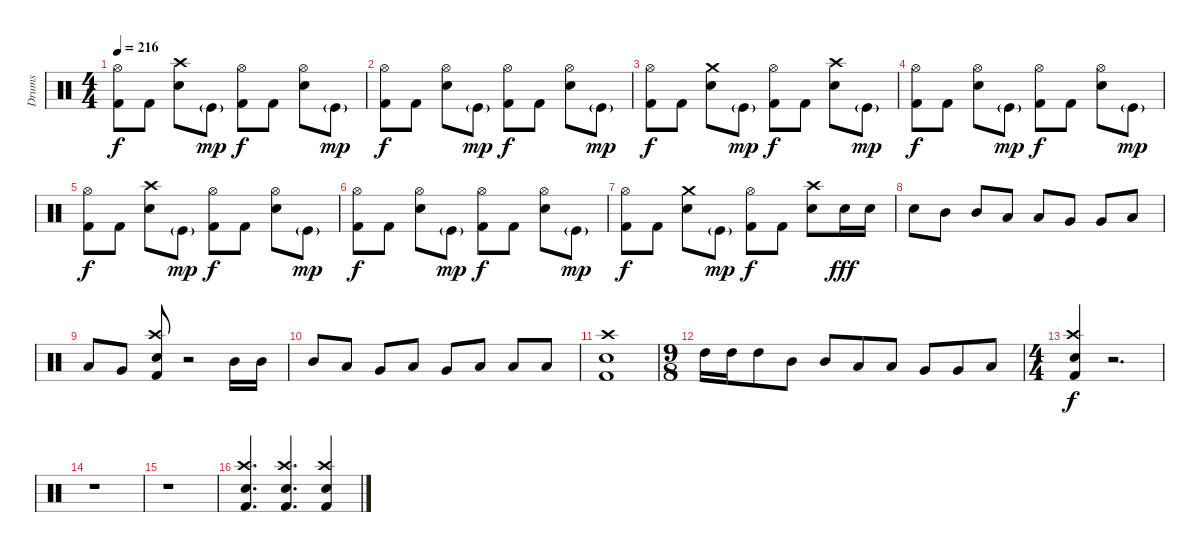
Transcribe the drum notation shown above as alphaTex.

\track ("Drums" "Drums") {instrument percussion}
\staff {score}
\articulation defaults
\ts (4 4)
\tempo 216
\clef neutral
\ks c
("Hi-Hat (open)" "Kick (hit) 2").8{dy f} "Kick (hit) 2".8 ("Crash high (hit)" "Snare (hit) 2").8 "Kick (hit)"{g}.8{dy mp} ("Hi-Hat (open)" "Kick (hit) 2").8{dy f} "Kick (hit) 2".8 ("Hi-Hat (open)" "Snare (hit) 2").8 "Kick (hit)"{g}.8{dy mp} |
("Hi-Hat (open)" "Kick (hit) 2").8{dy f} "Kick (hit) 2".8 ("Hi-Hat (open)" "Snare (hit) 2").8 "Kick (hit)"{g}.8{dy mp} ("Hi-Hat (open)" "Kick (hit) 2").8{dy f} "Kick (hit) 2".8 ("Hi-Hat (open)" "Snare (hit) 2").8 "Kick (hit)"{g}.8{dy mp} |
("Hi-Hat (open)" "Kick (hit) 2").8{dy f} "Kick (hit) 2".8 ("Crash medium (hit)" "Snare (hit) 2").8 "Kick (hit)"{g}.8{dy mp} ("Hi-Hat (open)" "Kick (hit) 2").8{dy f} "Kick (hit) 2".8 ("Crash high (hit)" "Snare (hit) 2").8 "Kick (hit)"{g}.8{dy mp} |
("Hi-Hat (open)" "Kick (hit) 2").8{dy f} "Kick (hit) 2".8 ("Hi-Hat (open)" "Snare (hit) 2").8 "Kick (hit)"{g}.8{dy mp} ("Hi-Hat (open)" "Kick (hit) 2").8{dy f} "Kick (hit) 2".8 ("Hi-Hat (open)" "Snare (hit) 2").8 "Kick (hit)"{g}.8{dy mp} |
("Hi-Hat (open)" "Kick (hit) 2").8{dy f} "Kick (hit) 2".8 ("Crash high (hit)" "Snare (hit) 2").8 "Kick (hit)"{g}.8{dy mp} ("Hi-Hat (open)" "Kick (hit) 2").8{dy f} "Kick (hit) 2".8 ("Hi-Hat (open)" "Snare (hit) 2").8 "Kick (hit)"{g}.8{dy mp} |
("Hi-Hat (open)" "Kick (hit) 2").8{dy f} "Kick (hit) 2".8 ("Hi-Hat (open)" "Snare (hit) 2").8 "Kick (hit)"{g}.8{dy mp} ("Hi-Hat (open)" "Kick (hit) 2").8{dy f} "Kick (hit) 2".8 ("Hi-Hat (open)" "Snare (hit) 2").8 "Kick (hit)"{g}.8{dy mp} |
("Hi-Hat (open)" "Kick (hit) 2").8{dy f} "Kick (hit) 2".8 ("Crash medium (hit)" "Snare (hit) 2").8 "Kick (hit)"{g}.8{dy mp} ("Hi-Hat (open)" "Kick (hit) 2").8{dy f} "Kick (hit) 2".8 ("Crash high (hit)" "Snare (hit) 2").8 "Snare (hit) 2".16{dy fff} "Snare (hit) 2".16 |
"Snare (hit) 2".8 "Mid Tom (hit)".8 "Mid Tom (hit)".8 "Low Tom (hit)".8 "Low Tom (hit)".8 "Very Low Tom (hit)".8 "Very Low Tom (hit)".8 "Low Floor Tom (hit)".8 |
"Low Tom (hit)".8 "Very Low Tom (hit)".8 ("Crash high (hit)" "Snare (hit) 2" "Kick (hit) 2").8 r.2 "Mid Tom (hit)".16 "Mid Tom (hit)".16 |
"Mid Tom (hit)".8 "Low Tom (hit)".8 "Very Low Tom (hit)".8 "Low Tom (hit)".8 "Very Low Tom (hit)".8 "Low Floor Tom (hit)".8 "Low Floor Tom (hit)".8 "Low Floor Tom (hit)".8 |
("Crash high (hit)" "Snare (hit) 2" "Kick (hit) 2").1 |
\ts (9 8)
"High Tom (hit)".16 "High Tom (hit)".16 "High Tom (hit)".8 "Mid Tom (hit)".8 "Mid Tom (hit)".8 "Low Tom (hit)".8 "Low Tom (hit)".8 "Very Low Tom (hit)".8 "Very Low Tom (hit)".8 "Low Floor Tom (hit)".8 |
\ts (4 4)
("Crash high (hit)" "Snare (hit) 2" "Kick (hit) 2").4{dy f} r.2{d} |
r.1 |
r.1 |
("Crash high (hit)" "Snare (hit) 2" "Kick (hit) 2").4{d} ("Crash high (hit)" "Snare (hit) 2" "Kick (hit) 2").4{d} ("Crash high (hit)" "Snare (hit) 2" "Kick (hit) 2").4
